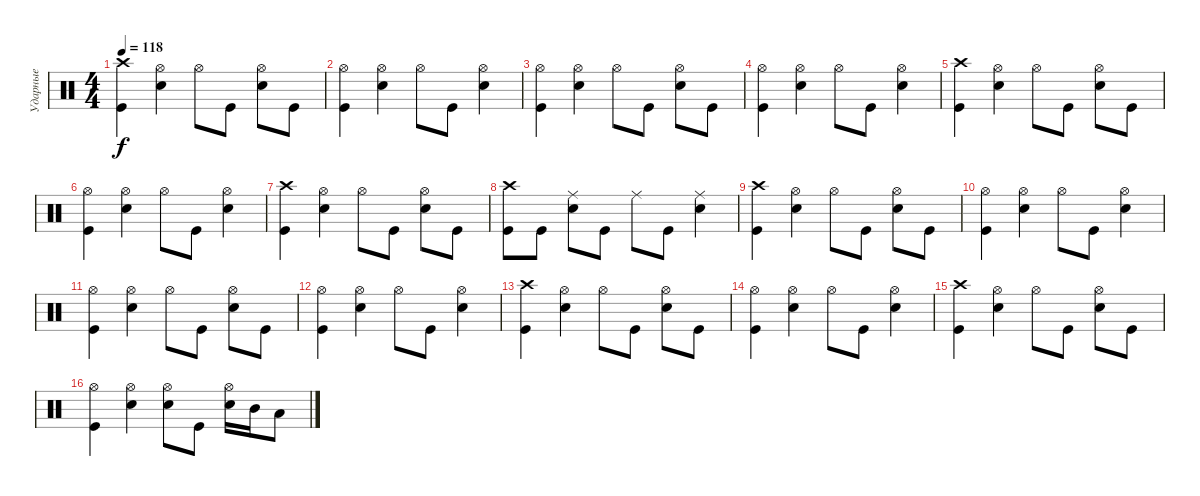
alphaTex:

\track ("Ударные" "Ударные") {instrument percussion}
\staff {score}
\articulation defaults
\ts (4 4)
\tempo 118
\clef neutral
\ks c
("Crash high (hit)" "Kick (hit)").4{dy f} ("Hi-Hat (open)" "Snare (hit) 2").4 "Hi-Hat (open)".8 "Kick (hit)".8 ("Hi-Hat (open)" "Snare (hit) 2").8 "Kick (hit)".8 |
("Hi-Hat (open)" "Kick (hit)").4 ("Hi-Hat (open)" "Snare (hit) 2").4 "Hi-Hat (open)".8 "Kick (hit)".8 ("Hi-Hat (open)" "Snare (hit) 2").4 |
("Hi-Hat (open)" "Kick (hit)").4 ("Hi-Hat (open)" "Snare (hit) 2").4 "Hi-Hat (open)".8 "Kick (hit)".8 ("Hi-Hat (open)" "Snare (hit) 2").8 "Kick (hit)".8 |
("Hi-Hat (open)" "Kick (hit)").4 ("Hi-Hat (open)" "Snare (hit) 2").4 "Hi-Hat (open)".8 "Kick (hit)".8 ("Hi-Hat (open)" "Snare (hit) 2").4 |
("Crash high (hit)" "Kick (hit)").4 ("Hi-Hat (open)" "Snare (hit) 2").4 "Hi-Hat (open)".8 "Kick (hit)".8 ("Hi-Hat (open)" "Snare (hit) 2").8 "Kick (hit)".8 |
("Hi-Hat (open)" "Kick (hit)").4 ("Hi-Hat (open)" "Snare (hit) 2").4 "Hi-Hat (open)".8 "Kick (hit)".8 ("Hi-Hat (open)" "Snare (hit) 2").4 |
("Crash high (hit)" "Kick (hit)").4 ("Hi-Hat (open)" "Snare (hit) 2").4 "Hi-Hat (open)".8 "Kick (hit)".8 ("Hi-Hat (open)" "Snare (hit) 2").8 "Kick (hit)".8 |
("Crash high (hit)" "Kick (hit)").8 "Kick (hit)".8 ("Ride (middle)" "Snare (hit) 2").8 "Kick (hit)".8 "Ride (middle)".8 "Kick (hit)".8 ("Ride (middle)" "Snare (hit) 2").4 |
("Crash high (hit)" "Kick (hit)").4 ("Hi-Hat (open)" "Snare (hit) 2").4 "Hi-Hat (open)".8 "Kick (hit)".8 ("Hi-Hat (open)" "Snare (hit) 2").8 "Kick (hit)".8 |
("Hi-Hat (open)" "Kick (hit)").4 ("Hi-Hat (open)" "Snare (hit) 2").4 "Hi-Hat (open)".8 "Kick (hit)".8 ("Hi-Hat (open)" "Snare (hit) 2").4 |
("Hi-Hat (open)" "Kick (hit)").4 ("Hi-Hat (open)" "Snare (hit) 2").4 "Hi-Hat (open)".8 "Kick (hit)".8 ("Hi-Hat (open)" "Snare (hit) 2").8 "Kick (hit)".8 |
("Hi-Hat (open)" "Kick (hit)").4 ("Hi-Hat (open)" "Snare (hit) 2").4 "Hi-Hat (open)".8 "Kick (hit)".8 ("Hi-Hat (open)" "Snare (hit) 2").4 |
("Crash high (hit)" "Kick (hit)").4 ("Hi-Hat (open)" "Snare (hit) 2").4 "Hi-Hat (open)".8 "Kick (hit)".8 ("Hi-Hat (open)" "Snare (hit) 2").8 "Kick (hit)".8 |
("Hi-Hat (open)" "Kick (hit)").4 ("Hi-Hat (open)" "Snare (hit) 2").4 "Hi-Hat (open)".8 "Kick (hit)".8 ("Hi-Hat (open)" "Snare (hit) 2").4 |
("Crash high (hit)" "Kick (hit)").4 ("Hi-Hat (open)" "Snare (hit) 2").4 "Hi-Hat (open)".8 "Kick (hit)".8 ("Hi-Hat (open)" "Snare (hit) 2").8 "Kick (hit)".8 |
("Hi-Hat (open)" "Kick (hit)").4 ("Hi-Hat (open)" "Snare (hit) 2").4 ("Hi-Hat (open)" "Snare (hit) 2").8 "Kick (hit)".8 ("Hi-Hat (open)" "Snare (hit) 2").16 "Mid Tom (hit)".16 "Low Tom (hit)".8
